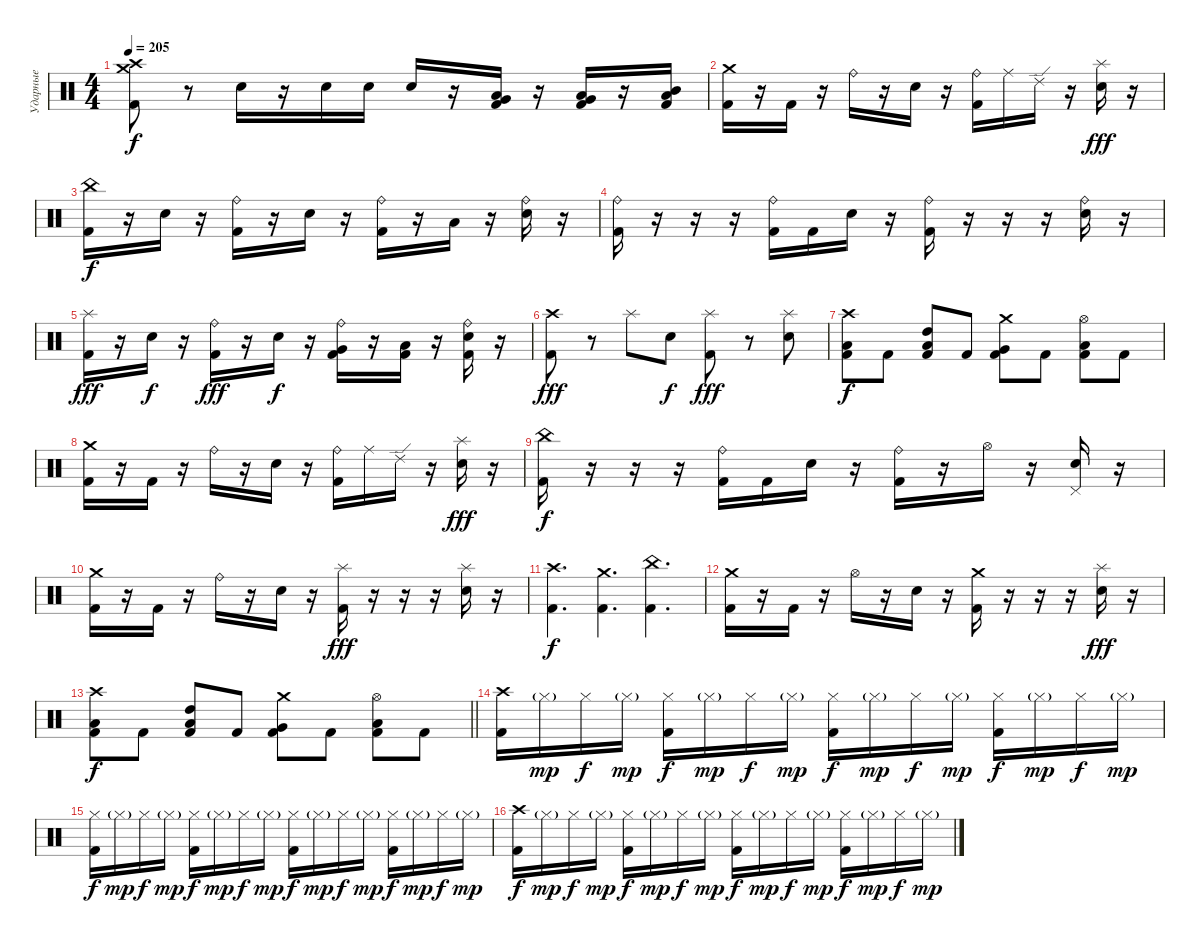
\track ("Ударные" "Ударные") {instrument percussion}
\staff {score}
\articulation defaults
\ts (4 4)
\tempo 205
\clef neutral
\ks c
("Crash medium (hit)" "Crash high (hit)" "Kick (hit) 2").8{dy f} r.8 "Snare (hit) 2".16 r.16 "Snare (hit) 2".16 "Snare (hit) 2".16 "Snare (hit) 2".16 r.16 ("Low Tom (hit)" "Very Low Tom (hit)" "Kick (hit) 2").16 r.16 ("Very Low Tom (hit)" "Low Floor Tom (hit)" "Kick (hit) 2").16 r.16 ("Mid Tom (hit)" "Low Tom (hit)" "Kick (hit) 2").16 |
("Crash medium (hit)" "Kick (hit) 2").16 r.16 "Kick (hit) 2".16 r.16 "Ride (bell)".16 r.16 "Snare (hit) 2".16 r.16 ("Ride (bell)" "Kick (hit) 2").16 "Ride (middle)".16 "Ride (edge) 2".16 r.16 ("Splash (hit)" "Snare (hit) 2").16{dy fff} r.16 |
("China (hit)" "Kick (hit) 2").16{dy f} r.16 "Snare (hit) 2".16 r.16 ("Ride (bell)" "Kick (hit) 2").16 r.16 "Snare (hit) 2".16 r.16 ("Ride (bell)" "Kick (hit) 2").16 r.16 "Low Tom (hit)".16 r.16 ("Ride (bell)" "Snare (hit) 2").16 r.16 |
("Ride (bell)" "Kick (hit) 2").16 r.16 r.16 r.16 ("Ride (bell)" "Kick (hit) 2").16 "Kick (hit) 2".16 "Snare (hit) 2".16 r.16 ("Ride (bell)" "Kick (hit) 2").16 r.16 r.16 r.16 ("Ride (bell)" "Snare (hit) 2").16 r.16 |
("Splash (hit)" "Kick (hit) 2").16{dy fff} r.16 "Snare (hit) 2".16{dy f} r.16 ("Ride (bell)" "Kick (hit) 2").16{dy fff} r.16 "Snare (hit) 2".16{dy f} r.16 ("Ride (bell)" "Very Low Tom (hit)" "Kick (hit) 2").16 r.16 ("Low Tom (hit)" "Kick (hit) 2").16 r.16 ("Ride (bell)" "Snare (hit) 2" "Kick (hit) 2").16 r.16 |
("Crash high (hit)" "Kick (hit) 2").8{dy fff} r.8 "Splash (hit)".8 "Snare (hit) 2".8{dy f} ("Splash (hit)" "Kick (hit) 2").8{dy fff} r.8 ("Splash (hit)" "Snare (hit) 2").8 |
("Crash high (hit)" "Low Tom (hit)" "Kick (hit) 2").8{dy f} "Kick (hit) 2".8 ("High Tom (hit)" "Low Tom (hit)" "Kick (hit) 2").8 "Kick (hit) 2".8 ("Crash medium (hit)" "Very Low Tom (hit)" "Kick (hit) 2").8 "Kick (hit) 2".8 ("Hi-Hat (open)" "Low Floor Tom (hit)" "Kick (hit) 2").8 "Kick (hit) 2".8 |
("Crash medium (hit)" "Kick (hit) 2").16 r.16 "Kick (hit) 2".16 r.16 "Ride (bell)".16 r.16 "Snare (hit) 2".16 r.16 ("Ride (bell)" "Kick (hit) 2").16 "Ride (middle)".16 "Ride (edge) 2".16 r.16 ("Splash (hit)" "Snare (hit) 2").16{dy fff} r.16 |
("China (hit)" "Kick (hit) 2").16{dy f} r.16 r.16 r.16 ("Ride (bell)" "Kick (hit) 2").16 "Kick (hit) 2".16 "Snare (hit) 2".16 r.16 ("Ride (bell)" "Kick (hit) 2").16 r.16 "Hi-Hat (open)".16 r.16 ("Pedal Hi-Hat (hit)" "Snare (hit) 2").16 r.16 |
("Crash medium (hit)" "Kick (hit) 2").16 r.16 "Kick (hit) 2".16 r.16 "Ride (bell)".16 r.16 "Snare (hit) 2".16 r.16 ("Splash (hit)" "Kick (hit) 2").16{dy fff} r.16 r.16 r.16 ("Splash (hit)" "Snare (hit) 2").16 r.16 |
("Crash high (hit)" "Kick (hit) 2").4{d dy f} ("Crash medium (hit)" "Kick (hit) 2").4{d} ("China (hit)" "Kick (hit) 2").4{d} |
("Crash medium (hit)" "Kick (hit) 2").16 r.16 "Kick (hit) 2".16 r.16 "Hi-Hat (open)".16 r.16 "Snare (hit) 2".16 r.16 ("Crash medium (hit)" "Kick (hit) 2").16 r.16 r.16 r.16 ("Splash (hit)" "Snare (hit) 2").16{dy fff} r.16 |
\barLineRight lightlight
("Crash high (hit)" "Low Tom (hit)" "Kick (hit) 2").8{dy f} "Kick (hit) 2".8 ("High Tom (hit)" "Low Tom (hit)" "Kick (hit) 2").8 "Kick (hit) 2".8 ("Crash medium (hit)" "Very Low Tom (hit)" "Kick (hit) 2").8 "Kick (hit) 2".8 ("Hi-Hat (open)" "Low Floor Tom (hit)" "Kick (hit) 2").8 "Kick (hit) 2".8 |
("Crash high (hit)" "Kick (hit) 2").16 "Hi-Hat (closed)"{g}.16{dy mp} "Hi-Hat (closed)".16{dy f} "Hi-Hat (closed)"{g}.16{dy mp} ("Hi-Hat (closed)" "Kick (hit) 2").16{dy f} "Hi-Hat (closed)"{g}.16{dy mp} "Hi-Hat (closed)".16{dy f} "Hi-Hat (closed)"{g}.16{dy mp} ("Hi-Hat (closed)" "Kick (hit) 2").16{dy f} "Hi-Hat (closed)"{g}.16{dy mp} "Hi-Hat (closed)".16{dy f} "Hi-Hat (closed)"{g}.16{dy mp} ("Hi-Hat (closed)" "Kick (hit) 2").16{dy f} "Hi-Hat (closed)"{g}.16{dy mp} "Hi-Hat (closed)".16{dy f} "Hi-Hat (closed)"{g}.16{dy mp} |
("Hi-Hat (closed)" "Kick (hit) 2").16{dy f} "Hi-Hat (closed)"{g}.16{dy mp} "Hi-Hat (closed)".16{dy f} "Hi-Hat (closed)"{g}.16{dy mp} ("Hi-Hat (closed)" "Kick (hit) 2").16{dy f} "Hi-Hat (closed)"{g}.16{dy mp} "Hi-Hat (closed)".16{dy f} "Hi-Hat (closed)"{g}.16{dy mp} ("Hi-Hat (closed)" "Kick (hit) 2").16{dy f} "Hi-Hat (closed)"{g}.16{dy mp} "Hi-Hat (closed)".16{dy f} "Hi-Hat (closed)"{g}.16{dy mp} ("Hi-Hat (closed)" "Kick (hit) 2").16{dy f} "Hi-Hat (closed)"{g}.16{dy mp} "Hi-Hat (closed)".16{dy f} "Hi-Hat (closed)"{g}.16{dy mp} |
("Crash high (hit)" "Kick (hit) 2").16{dy f} "Hi-Hat (closed)"{g}.16{dy mp} "Hi-Hat (closed)".16{dy f} "Hi-Hat (closed)"{g}.16{dy mp} ("Hi-Hat (closed)" "Kick (hit) 2").16{dy f} "Hi-Hat (closed)"{g}.16{dy mp} "Hi-Hat (closed)".16{dy f} "Hi-Hat (closed)"{g}.16{dy mp} ("Hi-Hat (closed)" "Kick (hit) 2").16{dy f} "Hi-Hat (closed)"{g}.16{dy mp} "Hi-Hat (closed)".16{dy f} "Hi-Hat (closed)"{g}.16{dy mp} ("Hi-Hat (closed)" "Kick (hit) 2").16{dy f} "Hi-Hat (closed)"{g}.16{dy mp} "Hi-Hat (closed)".16{dy f} "Hi-Hat (closed)"{g}.16{dy mp}
